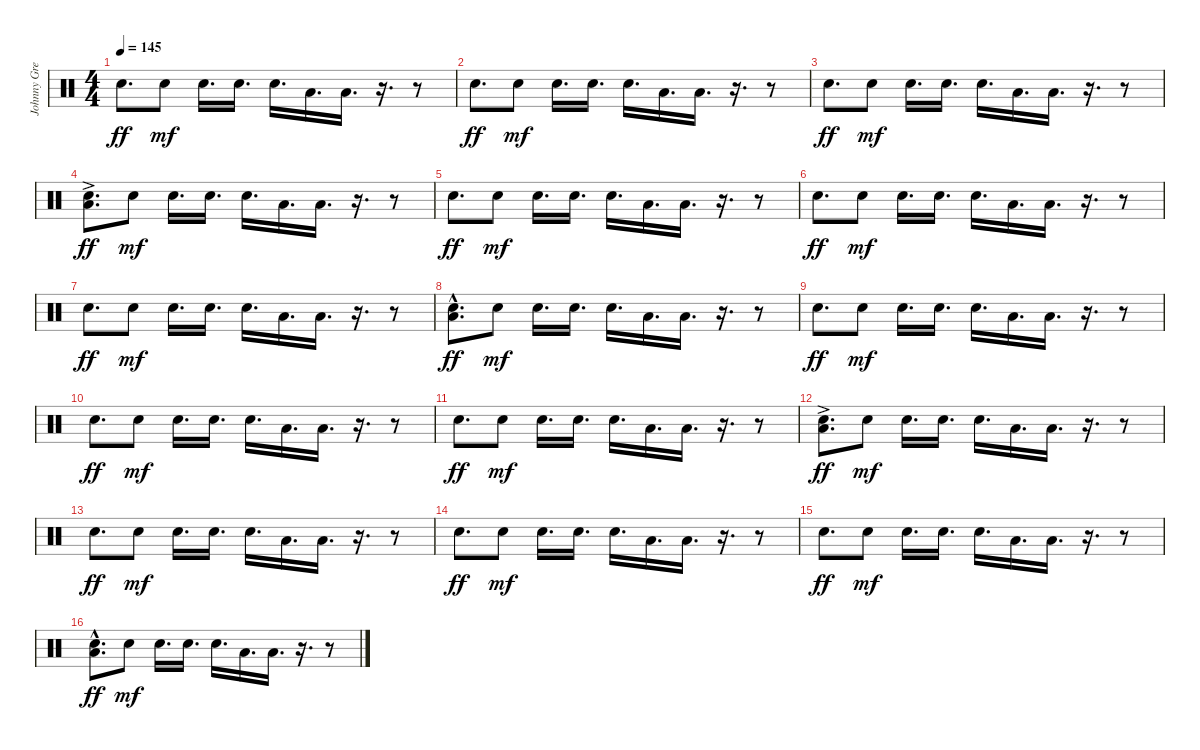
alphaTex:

\track ("Johnny Greenwood" "Johnny Gre") {instrument percussion}
\staff {score}
\articulation defaults
\ts (4 4)
\tempo 145
\clef neutral
\ks c "Snare (hit) 2".8{d dy ff} "Snare (hit) 2".8{dy mf} "Snare (hit) 2".16{d} "Snare (hit) 2".16{d} "Snare (hit) 2".16{d} "Low Floor Tom (hit)".16{d} "Low Floor Tom (hit)".16{d}
r.16{d} r.8 |
"Snare (hit) 2".8{d dy ff} "Snare (hit) 2".8{dy mf} "Snare (hit) 2".16{d} "Snare (hit) 2".16{d} "Snare (hit) 2".16{d} "Low Floor Tom (hit)".16{d} "Low Floor Tom (hit)".16{d} r.16{d} r.8 |
"Snare (hit) 2".8{d dy ff} "Snare (hit) 2".8{dy mf} "Snare (hit) 2".16{d} "Snare (hit) 2".16{d} "Snare (hit) 2".16{d} "Low Floor Tom (hit)".16{d} "Low Floor Tom (hit)".16{d} r.16{d} r.8 |
("Snare (hit) 2" "Low Floor Tom (hit)"{ac}).8{d dy ff} "Snare (hit) 2".8{dy mf} "Snare (hit) 2".16{d} "Snare (hit) 2".16{d} "Snare (hit) 2".16{d} "Low Floor Tom (hit)".16{d} "Low Floor Tom (hit)".16{d} r.16{d} r.8 |
"Snare (hit) 2".8{d dy ff} "Snare (hit) 2".8{dy mf} "Snare (hit) 2".16{d} "Snare (hit) 2".16{d} "Snare (hit) 2".16{d} "Low Floor Tom (hit)".16{d} "Low Floor Tom (hit)".16{d} r.16{d} r.8 |
"Snare (hit) 2".8{d dy ff} "Snare (hit) 2".8{dy mf} "Snare (hit) 2".16{d} "Snare (hit) 2".16{d} "Snare (hit) 2".16{d} "Low Floor Tom (hit)".16{d} "Low Floor Tom (hit)".16{d} r.16{d} r.8 |
"Snare (hit) 2".8{d dy ff} "Snare (hit) 2".8{dy mf} "Snare (hit) 2".16{d} "Snare (hit) 2".16{d} "Snare (hit) 2".16{d} "Low Floor Tom (hit)".16{d} "Low Floor Tom (hit)".16{d} r.16{d} r.8 |
("Snare (hit) 2" "Low Floor Tom (hit)"{hac}).8{d dy ff} "Snare (hit) 2".8{dy mf} "Snare (hit) 2".16{d} "Snare (hit) 2".16{d} "Snare (hit) 2".16{d} "Low Floor Tom (hit)".16{d} "Low Floor Tom (hit)".16{d} r.16{d} r.8 |
"Snare (hit) 2".8{d dy ff} "Snare (hit) 2".8{dy mf} "Snare (hit) 2".16{d} "Snare (hit) 2".16{d} "Snare (hit) 2".16{d} "Low Floor Tom (hit)".16{d} "Low Floor Tom (hit)".16{d} r.16{d} r.8 |
"Snare (hit) 2".8{d dy ff} "Snare (hit) 2".8{dy mf} "Snare (hit) 2".16{d} "Snare (hit) 2".16{d} "Snare (hit) 2".16{d} "Low Floor Tom (hit)".16{d} "Low Floor Tom (hit)".16{d} r.16{d} r.8 |
"Snare (hit) 2".8{d dy ff} "Snare (hit) 2".8{dy mf} "Snare (hit) 2".16{d} "Snare (hit) 2".16{d} "Snare (hit) 2".16{d} "Low Floor Tom (hit)".16{d} "Low Floor Tom (hit)".16{d} r.16{d} r.8 |
("Snare (hit) 2" "Low Floor Tom (hit)"{ac}).8{d dy ff} "Snare (hit) 2".8{dy mf} "Snare (hit) 2".16{d} "Snare (hit) 2".16{d} "Snare (hit) 2".16{d} "Low Floor Tom (hit)".16{d} "Low Floor Tom (hit)".16{d} r.16{d} r.8 |
"Snare (hit) 2".8{d dy ff} "Snare (hit) 2".8{dy mf} "Snare (hit) 2".16{d} "Snare (hit) 2".16{d} "Snare (hit) 2".16{d} "Low Floor Tom (hit)".16{d} "Low Floor Tom (hit)".16{d} r.16{d} r.8 |
"Snare (hit) 2".8{d dy ff} "Snare (hit) 2".8{dy mf} "Snare (hit) 2".16{d} "Snare (hit) 2".16{d} "Snare (hit) 2".16{d} "Low Floor Tom (hit)".16{d} "Low Floor Tom (hit)".16{d} r.16{d} r.8 |
"Snare (hit) 2".8{d dy ff} "Snare (hit) 2".8{dy mf} "Snare (hit) 2".16{d} "Snare (hit) 2".16{d} "Snare (hit) 2".16{d} "Low Floor Tom (hit)".16{d} "Low Floor Tom (hit)".16{d} r.16{d} r.8 |
("Snare (hit) 2" "Low Floor Tom (hit)"{hac}).8{d dy ff} "Snare (hit) 2".8{dy mf} "Snare (hit) 2".16{d} "Snare (hit) 2".16{d} "Snare (hit) 2".16{d} "Low Floor Tom (hit)".16{d} "Low Floor Tom (hit)".16{d} r.16{d} r.8
